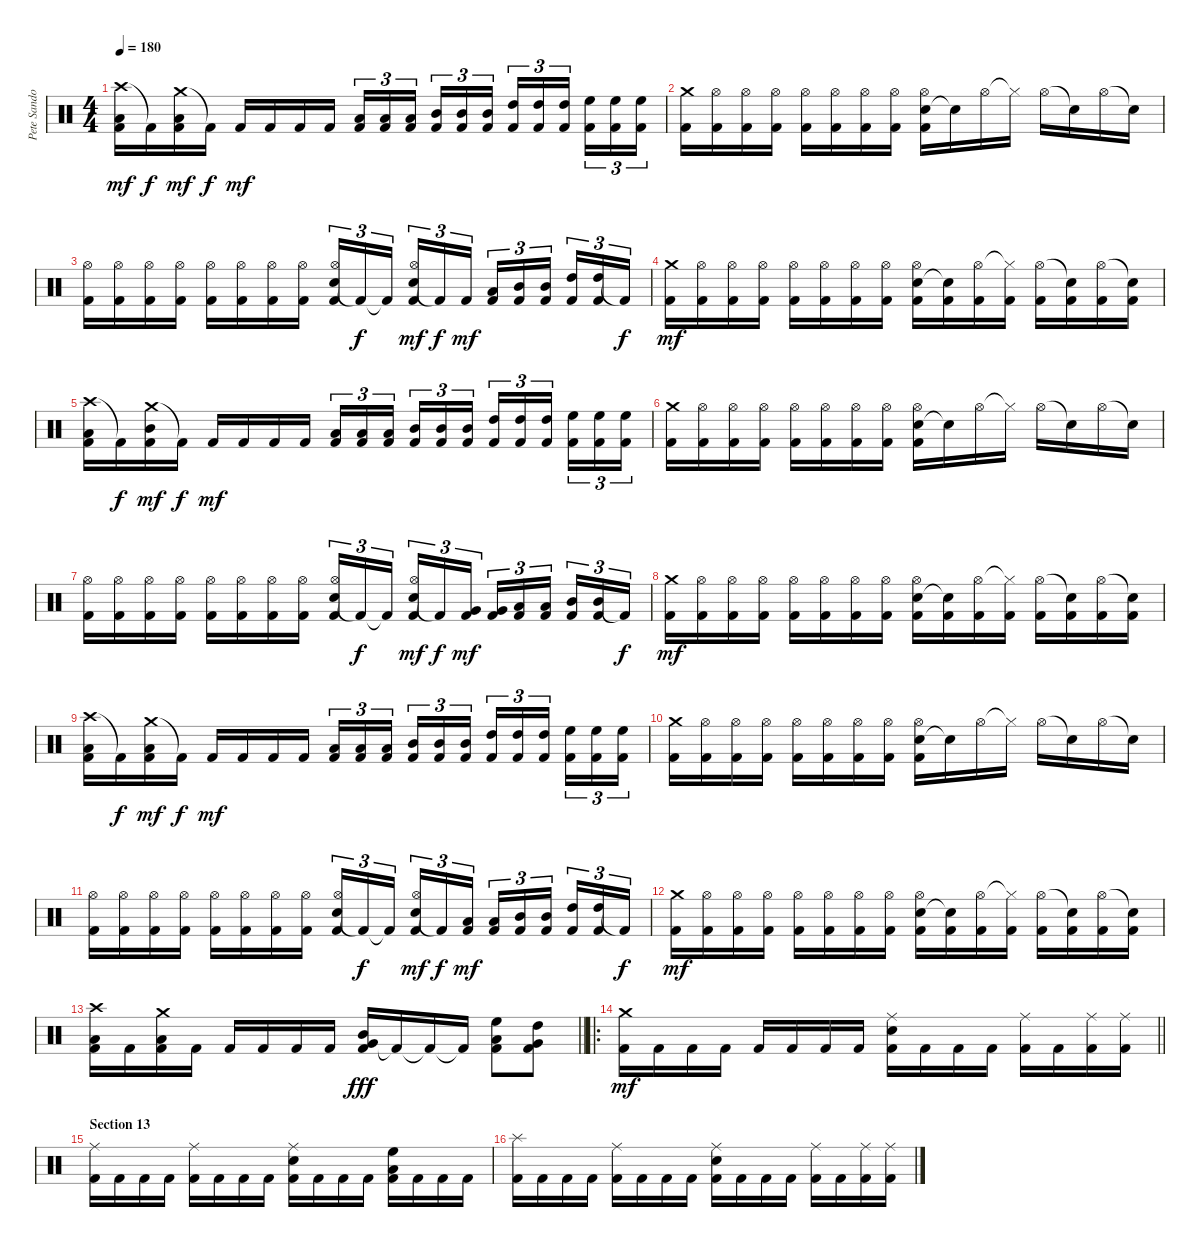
\track ("Pete Sandoval" "Pete Sando") {instrument percussion}
\staff {score}
\articulation defaults
\ts (4 4)
\tempo 180
\clef neutral
\ks c
("Crash high (hit)" "Low Tom (hit)" "Kick (hit) 2").16{dy mf} "Kick (hit) 2"{t}.16{dy f} ("Crash medium (hit)" "Low Tom (hit)" "Kick (hit) 2").16{dy mf} "Kick (hit) 2"{t}.16{dy f} "Kick (hit) 2".16{dy mf} "Kick (hit) 2".16 "Kick (hit) 2".16 "Kick (hit) 2".16 ("Low Tom (hit)" "Kick (hit) 2").16{tu (3 2)} ("Low Tom (hit)" "Kick (hit) 2").16{tu (3 2)} ("Low Tom (hit)" "Kick (hit) 2").16{tu (3 2) beam splitsecondary} ("Mid Tom (hit)" "Kick (hit) 2").16{tu (3 2)} ("Mid Tom (hit)" "Kick (hit) 2").16{tu (3 2)} ("Mid Tom (hit)" "Kick (hit) 2").16{tu (3 2)} ("High Tom (hit)" "Kick (hit) 2").16{tu (3 2)} ("High Tom (hit)" "Kick (hit) 2").16{tu (3 2)} ("High Tom (hit)" "Kick (hit) 2").16{tu (3 2) beam splitsecondary} ("High Floor Tom (hit)" "Kick (hit) 2").16{tu (3 2)} ("High Floor Tom (hit)" "Kick (hit) 2").16{tu (3 2)} ("High Floor Tom (hit)" "Kick (hit) 2").16{tu (3 2)} |
("Crash medium (hit)" "Kick (hit) 2").16 ("Hi-Hat (open)" "Kick (hit) 2").16 ("Hi-Hat (open)" "Kick (hit) 2").16 ("Hi-Hat (open)" "Kick (hit) 2").16 ("Hi-Hat (open)" "Kick (hit) 2").16 ("Hi-Hat (open)" "Kick (hit) 2").16 ("Hi-Hat (open)" "Kick (hit) 2").16 ("Hi-Hat (open)" "Kick (hit) 2").16 ("Snare (hit) 2" "Hi-Hat (open)" "Kick (hit) 2").16 "Snare (hit)"{t}.16 "Hi-Hat (open)".16 "Hi-Hat (closed)"{t}.16 "Hi-Hat (open)".16 "Snare (hit)"{t}.16 "Hi-Hat (open)".16 "Snare (hit)"{t}.16 |
("Hi-Hat (open)" "Kick (hit) 2").16 ("Hi-Hat (open)" "Kick (hit) 2").16 ("Hi-Hat (open)" "Kick (hit) 2").16 ("Hi-Hat (open)" "Kick (hit) 2").16 ("Hi-Hat (open)" "Kick (hit) 2").16 ("Hi-Hat (open)" "Kick (hit) 2").16 ("Hi-Hat (open)" "Kick (hit) 2").16 ("Hi-Hat (open)" "Kick (hit) 2").16 ("Snare (hit) 2" "Hi-Hat (open)" "Kick (hit) 2").16{tu (3 2)} "Kick (hit) 2"{t}.16{tu (3 2) dy f} "Kick (hit) 2"{t}.16{tu (3 2) beam splitsecondary} ("Snare (hit) 2" "Hi-Hat (open)" "Kick (hit) 2").16{tu (3 2) dy mf} "Kick (hit) 2"{t}.16{tu (3 2) dy f} "Kick (hit) 2".16{tu (3 2) dy mf} ("Low Tom (hit)" "Kick (hit) 2").16{tu (3 2)} ("Mid Tom (hit)" "Kick (hit) 2").16{tu (3 2)} ("Mid Tom (hit)" "Kick (hit) 2").16{tu (3 2) beam splitsecondary} ("High Tom (hit)" "Kick (hit) 2").16{tu (3 2)} ("High Tom (hit)" "Kick (hit) 2").16{tu (3 2)} "Kick (hit) 2"{t}.16{tu (3 2) dy f} |
("Crash medium (hit)" "Kick (hit) 2").16{dy mf} ("Hi-Hat (open)" "Kick (hit) 2").16 ("Hi-Hat (open)" "Kick (hit) 2").16 ("Hi-Hat (open)" "Kick (hit) 2").16 ("Hi-Hat (open)" "Kick (hit) 2").16 ("Hi-Hat (open)" "Kick (hit) 2").16 ("Hi-Hat (open)" "Kick (hit) 2").16 ("Hi-Hat (open)" "Kick (hit) 2").16 ("Snare (hit) 2" "Hi-Hat (open)" "Kick (hit) 2").16 ("Snare (hit)"{t} "Kick (hit) 2").16 ("Hi-Hat (open)" "Kick (hit) 2").16 ("Hi-Hat (closed)"{t} "Kick (hit) 2").16 ("Hi-Hat (open)" "Kick (hit) 2").16 ("Snare (hit)"{t} "Kick (hit) 2").16 ("Hi-Hat (open)" "Kick (hit) 2").16 ("Snare (hit)"{t} "Kick (hit) 2").16 |
("Crash high (hit)" "Low Tom (hit)" "Kick (hit) 2").16 "Kick (hit) 2"{t}.16{dy f} ("Crash medium (hit)" "Mid Tom (hit)" "Kick (hit) 2").16{dy mf} "Kick (hit) 2"{t}.16{dy f} "Kick (hit) 2".16{dy mf} "Kick (hit) 2".16 "Kick (hit) 2".16 "Kick (hit) 2".16 ("Low Tom (hit)" "Kick (hit) 2").16{tu (3 2)} ("Low Tom (hit)" "Kick (hit) 2").16{tu (3 2)} ("Low Tom (hit)" "Kick (hit) 2").16{tu (3 2) beam splitsecondary} ("Mid Tom (hit)" "Kick (hit) 2").16{tu (3 2)} ("Mid Tom (hit)" "Kick (hit) 2").16{tu (3 2)} ("Mid Tom (hit)" "Kick (hit) 2").16{tu (3 2)} ("High Tom (hit)" "Kick (hit) 2").16{tu (3 2)} ("High Tom (hit)" "Kick (hit) 2").16{tu (3 2)} ("High Tom (hit)" "Kick (hit) 2").16{tu (3 2) beam splitsecondary} ("High Floor Tom (hit)" "Kick (hit) 2").16{tu (3 2)} ("High Floor Tom (hit)" "Kick (hit) 2").16{tu (3 2)} ("High Floor Tom (hit)" "Kick (hit) 2").16{tu (3 2)} |
("Crash medium (hit)" "Kick (hit) 2").16 ("Hi-Hat (open)" "Kick (hit) 2").16 ("Hi-Hat (open)" "Kick (hit) 2").16 ("Hi-Hat (open)" "Kick (hit) 2").16 ("Hi-Hat (open)" "Kick (hit) 2").16 ("Hi-Hat (open)" "Kick (hit) 2").16 ("Hi-Hat (open)" "Kick (hit) 2").16 ("Hi-Hat (open)" "Kick (hit) 2").16 ("Snare (hit) 2" "Hi-Hat (open)" "Kick (hit) 2").16 "Snare (hit)"{t}.16 "Hi-Hat (open)".16 "Hi-Hat (closed)"{t}.16 "Hi-Hat (open)".16 "Snare (hit)"{t}.16 "Hi-Hat (open)".16 "Snare (hit)"{t}.16 |
("Hi-Hat (open)" "Kick (hit) 2").16 ("Hi-Hat (open)" "Kick (hit) 2").16 ("Hi-Hat (open)" "Kick (hit) 2").16 ("Hi-Hat (open)" "Kick (hit) 2").16 ("Hi-Hat (open)" "Kick (hit) 2").16 ("Hi-Hat (open)" "Kick (hit) 2").16 ("Hi-Hat (open)" "Kick (hit) 2").16 ("Hi-Hat (open)" "Kick (hit) 2").16 ("Snare (hit) 2" "Hi-Hat (open)" "Kick (hit) 2").16{tu (3 2)} "Kick (hit) 2"{t}.16{tu (3 2) dy f} "Kick (hit) 2"{t}.16{tu (3 2) beam splitsecondary} ("Snare (hit) 2" "Hi-Hat (open)" "Kick (hit) 2").16{tu (3 2) dy mf} "Kick (hit) 2"{t}.16{tu (3 2) dy f} ("Very Low Tom (hit)" "Kick (hit) 2").16{tu (3 2) dy mf} ("Very Low Tom (hit)" "Kick (hit) 2").16{tu (3 2)} ("Low Tom (hit)" "Kick (hit) 2").16{tu (3 2)} ("Low Tom (hit)" "Kick (hit) 2").16{tu (3 2) beam splitsecondary} ("Mid Tom (hit)" "Kick (hit) 2").16{tu (3 2)} ("Mid Tom (hit)" "Kick (hit) 2").16{tu (3 2)} "Kick (hit) 2"{t}.16{tu (3 2) dy f} |
("Crash medium (hit)" "Kick (hit) 2").16{dy mf} ("Hi-Hat (open)" "Kick (hit) 2").16 ("Hi-Hat (open)" "Kick (hit) 2").16 ("Hi-Hat (open)" "Kick (hit) 2").16 ("Hi-Hat (open)" "Kick (hit) 2").16 ("Hi-Hat (open)" "Kick (hit) 2").16 ("Hi-Hat (open)" "Kick (hit) 2").16 ("Hi-Hat (open)" "Kick (hit) 2").16 ("Snare (hit) 2" "Hi-Hat (open)" "Kick (hit) 2").16 ("Snare (hit)"{t} "Kick (hit) 2").16 ("Hi-Hat (open)" "Kick (hit) 2").16 ("Hi-Hat (closed)"{t} "Kick (hit) 2").16 ("Hi-Hat (open)" "Kick (hit) 2").16 ("Snare (hit)"{t} "Kick (hit) 2").16 ("Hi-Hat (open)" "Kick (hit) 2").16 ("Snare (hit)"{t} "Kick (hit) 2").16 |
("Crash high (hit)" "Low Tom (hit)" "Kick (hit) 2").16 "Kick (hit) 2"{t}.16{dy f} ("Crash medium (hit)" "Low Tom (hit)" "Kick (hit) 2").16{dy mf} "Kick (hit) 2"{t}.16{dy f} "Kick (hit) 2".16{dy mf} "Kick (hit) 2".16 "Kick (hit) 2".16 "Kick (hit) 2".16 ("Low Tom (hit)" "Kick (hit) 2").16{tu (3 2)} ("Low Tom (hit)" "Kick (hit) 2").16{tu (3 2)} ("Low Tom (hit)" "Kick (hit) 2").16{tu (3 2) beam splitsecondary} ("Mid Tom (hit)" "Kick (hit) 2").16{tu (3 2)} ("Mid Tom (hit)" "Kick (hit) 2").16{tu (3 2)} ("Mid Tom (hit)" "Kick (hit) 2").16{tu (3 2)} ("High Tom (hit)" "Kick (hit) 2").16{tu (3 2)} ("High Tom (hit)" "Kick (hit) 2").16{tu (3 2)} ("High Tom (hit)" "Kick (hit) 2").16{tu (3 2) beam splitsecondary} ("High Floor Tom (hit)" "Kick (hit) 2").16{tu (3 2)} ("High Floor Tom (hit)" "Kick (hit) 2").16{tu (3 2)} ("High Floor Tom (hit)" "Kick (hit) 2").16{tu (3 2)} |
("Crash medium (hit)" "Kick (hit) 2").16 ("Hi-Hat (open)" "Kick (hit) 2").16 ("Hi-Hat (open)" "Kick (hit) 2").16 ("Hi-Hat (open)" "Kick (hit) 2").16 ("Hi-Hat (open)" "Kick (hit) 2").16 ("Hi-Hat (open)" "Kick (hit) 2").16 ("Hi-Hat (open)" "Kick (hit) 2").16 ("Hi-Hat (open)" "Kick (hit) 2").16 ("Snare (hit) 2" "Hi-Hat (open)" "Kick (hit) 2").16 "Snare (hit)"{t}.16 "Hi-Hat (open)".16 "Hi-Hat (closed)"{t}.16 "Hi-Hat (open)".16 "Snare (hit)"{t}.16 "Hi-Hat (open)".16 "Snare (hit)"{t}.16 |
("Hi-Hat (open)" "Kick (hit) 2").16 ("Hi-Hat (open)" "Kick (hit) 2").16 ("Hi-Hat (open)" "Kick (hit) 2").16 ("Hi-Hat (open)" "Kick (hit) 2").16 ("Hi-Hat (open)" "Kick (hit) 2").16 ("Hi-Hat (open)" "Kick (hit) 2").16 ("Hi-Hat (open)" "Kick (hit) 2").16 ("Hi-Hat (open)" "Kick (hit) 2").16 ("Snare (hit) 2" "Hi-Hat (open)" "Kick (hit) 2").16{tu (3 2)} "Kick (hit) 2"{t}.16{tu (3 2) dy f} "Kick (hit) 2"{t}.16{tu (3 2) beam splitsecondary} ("Snare (hit) 2" "Hi-Hat (open)" "Kick (hit) 2").16{tu (3 2) dy mf} "Kick (hit) 2"{t}.16{tu (3 2) dy f} ("Low Tom (hit)" "Kick (hit) 2").16{tu (3 2) dy mf} ("Low Tom (hit)" "Kick (hit) 2").16{tu (3 2)} ("Mid Tom (hit)" "Kick (hit) 2").16{tu (3 2)} ("Mid Tom (hit)" "Kick (hit) 2").16{tu (3 2) beam splitsecondary} ("High Tom (hit)" "Kick (hit) 2").16{tu (3 2)} ("High Tom (hit)" "Kick (hit) 2").16{tu (3 2)} "Kick (hit) 2"{t}.16{tu (3 2) dy f} |
("Crash medium (hit)" "Kick (hit) 2").16{dy mf} ("Hi-Hat (open)" "Kick (hit) 2").16 ("Hi-Hat (open)" "Kick (hit) 2").16 ("Hi-Hat (open)" "Kick (hit) 2").16 ("Hi-Hat (open)" "Kick (hit) 2").16 ("Hi-Hat (open)" "Kick (hit) 2").16 ("Hi-Hat (open)" "Kick (hit) 2").16 ("Hi-Hat (open)" "Kick (hit) 2").16 ("Snare (hit) 2" "Hi-Hat (open)" "Kick (hit) 2").16 ("Snare (hit)"{t} "Kick (hit) 2").16 ("Hi-Hat (open)" "Kick (hit) 2").16 ("Hi-Hat (closed)"{t} "Kick (hit) 2").16 ("Hi-Hat (open)" "Kick (hit) 2").16 ("Snare (hit)"{t} "Kick (hit) 2").16 ("Hi-Hat (open)" "Kick (hit) 2").16 ("Snare (hit)"{t} "Kick (hit) 2").16 |
\barLineRight lightlight
("Crash high (hit)" "Low Tom (hit)" "Kick (hit) 2").16 "Kick (hit) 2".16 ("Crash medium (hit)" "Low Tom (hit)" "Kick (hit) 2").16 "Kick (hit) 2".16 "Kick (hit) 2".16 "Kick (hit) 2".16 "Kick (hit) 2".16 "Kick (hit) 2".16 ("Very Low Tom (hit)" "Mid Tom (hit)" "Kick (hit) 2").16{dy fff} "Kick (hit) 2"{t}.16 "Kick (hit) 2"{t}.16 "Kick (hit) 2"{t}.16 ("High Floor Tom (hit)" "Low Tom (hit)" "Kick (hit) 2").8 ("High Tom (hit)" "Very Low Tom (hit)" "Kick (hit) 2").8 |
\ro
\barLineRight lightlight
("Crash medium (hit)" "Kick (hit) 2").16{dy mf} "Kick (hit) 2".16 "Kick (hit) 2".16 "Kick (hit) 2".16 "Kick (hit) 2".16 "Kick (hit) 2".16 "Kick (hit) 2".16 "Kick (hit) 2".16 ("Snare (hit) 2" "Ride (middle)" "Kick (hit) 2").16 "Kick (hit) 2".16 "Kick (hit) 2".16 "Kick (hit) 2".16 ("Ride (middle)" "Kick (hit) 2").16 "Kick (hit) 2".16 ("Ride (middle)" "Kick (hit) 2").16 ("Ride (middle)" "Kick (hit) 2").16 |
\section ("" "Section 13")
("Ride (middle)" "Kick (hit) 2").16 "Kick (hit) 2".16 "Kick (hit) 2".16 "Kick (hit) 2".16 ("Ride (middle)" "Kick (hit) 2").16 "Kick (hit) 2".16 "Kick (hit) 2".16 "Kick (hit) 2".16 ("Snare (hit) 2" "Ride (middle)" "Kick (hit) 2").16 "Kick (hit) 2".16 "Kick (hit) 2".16 "Kick (hit) 2".16 ("High Floor Tom (hit)" "Low Tom (hit)" "Kick (hit) 2").16 "Kick (hit) 2".16 "Kick (hit) 2".16 "Kick (hit) 2".16 |
("Splash (hit)" "Kick (hit) 2").16 "Kick (hit) 2".16 "Kick (hit) 2".16 "Kick (hit) 2".16 ("Ride (middle)" "Kick (hit) 2").16 "Kick (hit) 2".16 "Kick (hit) 2".16 "Kick (hit) 2".16 ("Snare (hit) 2" "Ride (middle)" "Kick (hit) 2").16 "Kick (hit) 2".16 "Kick (hit) 2".16 "Kick (hit) 2".16 ("Ride (middle)" "Kick (hit) 2").16 "Kick (hit) 2".16 ("Ride (middle)" "Kick (hit) 2").16 ("Ride (middle)" "Kick (hit) 2").16
